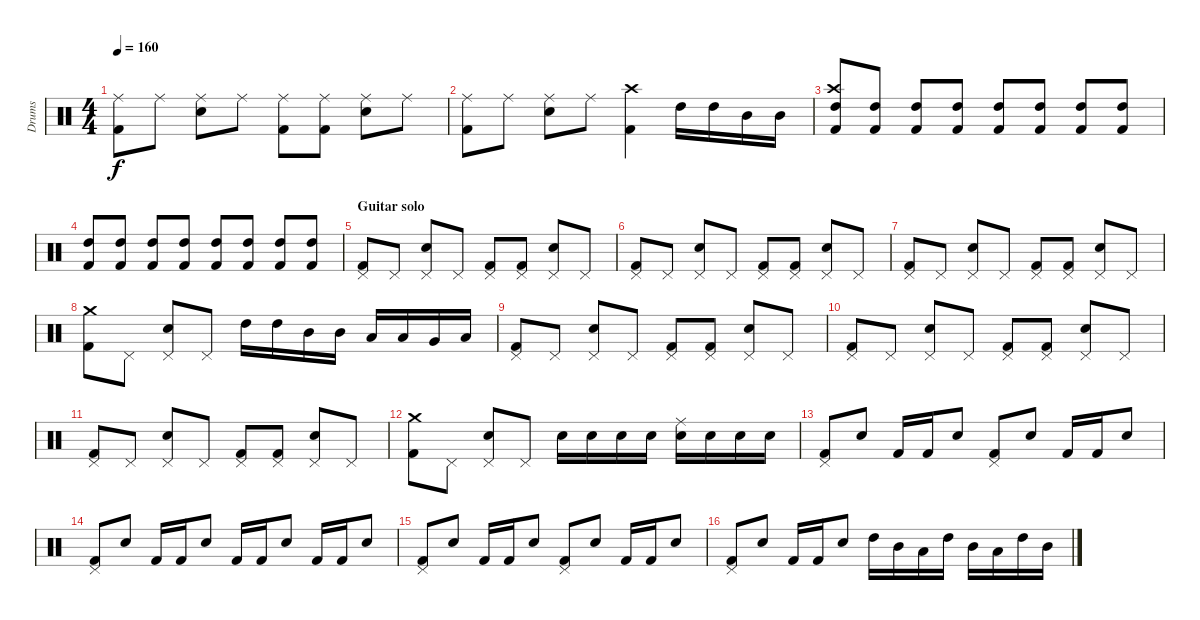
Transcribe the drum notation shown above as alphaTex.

\track ("Drums" "Drums") {instrument percussion}
\staff {score}
\articulation defaults
\ts (4 4)
\tempo 160
\clef neutral
\ks c
("Ride (middle)" "Kick (hit) 2").8{dy f} "Ride (middle)".8 ("Electric Snare (hit)" "Ride (middle)").8 "Ride (middle)".8 ("Ride (middle)" "Kick (hit) 2").8 ("Ride (middle)" "Kick (hit) 2").8 ("Electric Snare (hit)" "Ride (middle)").8 "Ride (middle)".8 |
("Ride (middle)" "Kick (hit) 2").8 "Ride (middle)".8 ("Electric Snare (hit)" "Ride (middle)").8 "Ride (middle)".8 ("Crash high (hit)" "Kick (hit) 2").4 "High Tom (hit)".16 "High Tom (hit)".16 "Mid Tom (hit)".16 "Mid Tom (hit)".16 |
("Crash high (hit)" "High Tom (hit)" "Kick (hit) 2").8 ("High Tom (hit)" "Kick (hit) 2").8 ("High Tom (hit)" "Kick (hit) 2").8 ("High Tom (hit)" "Kick (hit) 2").8 ("High Tom (hit)" "Kick (hit) 2").8 ("High Tom (hit)" "Kick (hit) 2").8 ("High Tom (hit)" "Kick (hit) 2").8 ("High Tom (hit)" "Kick (hit) 2").8 |
("High Tom (hit)" "Kick (hit) 2").8 ("High Tom (hit)" "Kick (hit) 2").8 ("High Tom (hit)" "Kick (hit) 2").8 ("High Tom (hit)" "Kick (hit) 2").8 ("High Tom (hit)" "Kick (hit) 2").8 ("High Tom (hit)" "Kick (hit) 2").8 ("High Tom (hit)" "Kick (hit) 2").8 ("High Tom (hit)" "Kick (hit) 2").8 |
\section ("" "Guitar solo")
("Pedal Hi-Hat (hit)" "Kick (hit) 2").8 "Pedal Hi-Hat (hit)".8 ("Electric Snare (hit)" "Pedal Hi-Hat (hit)").8 "Pedal Hi-Hat (hit)".8 ("Pedal Hi-Hat (hit)" "Kick (hit) 2").8 ("Pedal Hi-Hat (hit)" "Kick (hit) 2").8 ("Electric Snare (hit)" "Pedal Hi-Hat (hit)").8 "Pedal Hi-Hat (hit)".8 |
("Pedal Hi-Hat (hit)" "Kick (hit) 2").8 "Pedal Hi-Hat (hit)".8 ("Electric Snare (hit)" "Pedal Hi-Hat (hit)").8 "Pedal Hi-Hat (hit)".8 ("Pedal Hi-Hat (hit)" "Kick (hit) 2").8 ("Pedal Hi-Hat (hit)" "Kick (hit) 2").8 ("Electric Snare (hit)" "Pedal Hi-Hat (hit)").8 "Pedal Hi-Hat (hit)".8 |
("Pedal Hi-Hat (hit)" "Kick (hit) 2").8 "Pedal Hi-Hat (hit)".8 ("Electric Snare (hit)" "Pedal Hi-Hat (hit)").8 "Pedal Hi-Hat (hit)".8 ("Pedal Hi-Hat (hit)" "Kick (hit) 2").8 ("Pedal Hi-Hat (hit)" "Kick (hit) 2").8 ("Electric Snare (hit)" "Pedal Hi-Hat (hit)").8 "Pedal Hi-Hat (hit)".8 |
("Crash medium (hit)" "Kick (hit) 2").8 "Pedal Hi-Hat (hit)".8 ("Pedal Hi-Hat (hit)" "Electric Snare (hit)").8 "Pedal Hi-Hat (hit)".8 "High Tom (hit)".16 "High Tom (hit)".16 "Mid Tom (hit)".16 "Mid Tom (hit)".16 "Low Tom (hit)".16 "Low Tom (hit)".16 "Very Low Tom (hit)".16 "Low Floor Tom (hit)".16 |
("Pedal Hi-Hat (hit)" "Kick (hit) 2").8 "Pedal Hi-Hat (hit)".8 ("Electric Snare (hit)" "Pedal Hi-Hat (hit)").8 "Pedal Hi-Hat (hit)".8 ("Pedal Hi-Hat (hit)" "Kick (hit) 2").8 ("Pedal Hi-Hat (hit)" "Kick (hit) 2").8 ("Electric Snare (hit)" "Pedal Hi-Hat (hit)").8 "Pedal Hi-Hat (hit)".8 |
("Pedal Hi-Hat (hit)" "Kick (hit) 2").8 "Pedal Hi-Hat (hit)".8 ("Electric Snare (hit)" "Pedal Hi-Hat (hit)").8 "Pedal Hi-Hat (hit)".8 ("Pedal Hi-Hat (hit)" "Kick (hit) 2").8 ("Pedal Hi-Hat (hit)" "Kick (hit) 2").8 ("Electric Snare (hit)" "Pedal Hi-Hat (hit)").8 "Pedal Hi-Hat (hit)".8 |
("Pedal Hi-Hat (hit)" "Kick (hit) 2").8 "Pedal Hi-Hat (hit)".8 ("Electric Snare (hit)" "Pedal Hi-Hat (hit)").8 "Pedal Hi-Hat (hit)".8 ("Pedal Hi-Hat (hit)" "Kick (hit) 2").8 ("Pedal Hi-Hat (hit)" "Kick (hit) 2").8 ("Electric Snare (hit)" "Pedal Hi-Hat (hit)").8 "Pedal Hi-Hat (hit)".8 |
("Crash medium (hit)" "Kick (hit) 2").8 "Pedal Hi-Hat (hit)".8 ("Pedal Hi-Hat (hit)" "Electric Snare (hit)").8 "Pedal Hi-Hat (hit)".8 "Electric Snare (hit)".16 "Electric Snare (hit)".16 "Electric Snare (hit)".16 "Electric Snare (hit)".16 ("Ride (middle)" "Electric Snare (hit)").16 "Electric Snare (hit)".16 "Electric Snare (hit)".16 "Electric Snare (hit)".16 |
("Pedal Hi-Hat (hit)" "Kick (hit) 2").8 "Electric Snare (hit)".8 "Kick (hit) 2".16 "Kick (hit) 2".16 "Electric Snare (hit)".8 ("Pedal Hi-Hat (hit)" "Kick (hit) 2").8 "Electric Snare (hit)".8 "Kick (hit) 2".16 "Kick (hit) 2".16 "Electric Snare (hit)".8 |
("Pedal Hi-Hat (hit)" "Kick (hit) 2").8 "Electric Snare (hit)".8 "Kick (hit) 2".16 "Kick (hit) 2".16 "Electric Snare (hit)".8 "Kick (hit) 2".16 "Kick (hit) 2".16 "Electric Snare (hit)".8 "Kick (hit) 2".16 "Kick (hit) 2".16 "Electric Snare (hit)".8 |
("Pedal Hi-Hat (hit)" "Kick (hit) 2").8 "Electric Snare (hit)".8 "Kick (hit) 2".16 "Kick (hit) 2".16 "Electric Snare (hit)".8 ("Pedal Hi-Hat (hit)" "Kick (hit) 2").8 "Electric Snare (hit)".8 "Kick (hit) 2".16 "Kick (hit) 2".16 "Electric Snare (hit)".8 |
("Pedal Hi-Hat (hit)" "Kick (hit) 2").8 "Electric Snare (hit)".8 "Kick (hit) 2".16 "Kick (hit) 2".16 "Electric Snare (hit)".8 "High Tom (hit)".16 "Mid Tom (hit)".16 "Low Tom (hit)".16 "High Tom (hit)".16 "Mid Tom (hit)".16 "Low Tom (hit)".16 "High Tom (hit)".16 "Mid Tom (hit)".16
